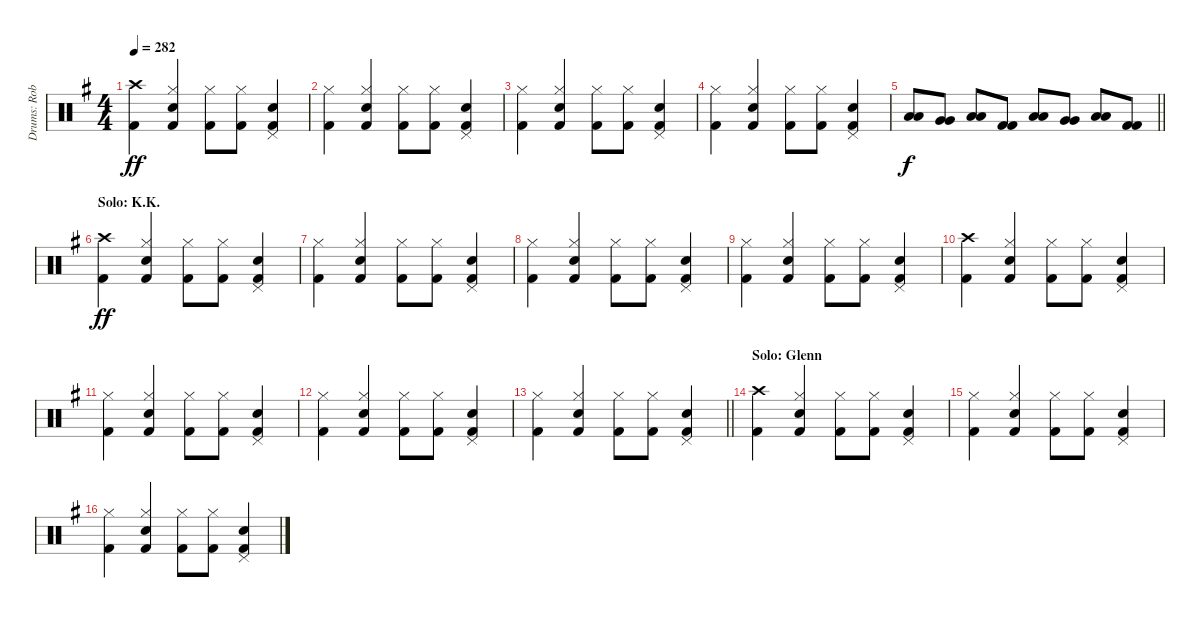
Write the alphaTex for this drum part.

\track ("Drums: Rob" "Drums: Rob") {instrument percussion}
\staff {score}
\articulation defaults
\ts (4 4)
\tempo 282
\clef neutral
\ks g
("Crash high (hit)" "Kick (hit) 2").4{dy ff} ("Hi-Hat (closed)" "Snare (hit) 2" "Kick (hit) 2").4 ("Hi-Hat (closed)" "Kick (hit) 2").8 ("Hi-Hat (closed)" "Kick (hit) 2").8 ("Pedal Hi-Hat (hit)" "Snare (hit) 2" "Kick (hit) 2").4 |
("Hi-Hat (closed)" "Kick (hit) 2").4 ("Hi-Hat (closed)" "Snare (hit) 2" "Kick (hit) 2").4 ("Hi-Hat (closed)" "Kick (hit) 2").8 ("Hi-Hat (closed)" "Kick (hit) 2").8 ("Pedal Hi-Hat (hit)" "Snare (hit) 2" "Kick (hit) 2").4 |
("Hi-Hat (closed)" "Kick (hit) 2").4 ("Hi-Hat (closed)" "Snare (hit) 2" "Kick (hit) 2").4 ("Hi-Hat (closed)" "Kick (hit) 2").8 ("Hi-Hat (closed)" "Kick (hit) 2").8 ("Pedal Hi-Hat (hit)" "Snare (hit) 2" "Kick (hit) 2").4 |
("Hi-Hat (closed)" "Kick (hit) 2").4 ("Hi-Hat (closed)" "Snare (hit) 2" "Kick (hit) 2").4 ("Hi-Hat (closed)" "Kick (hit) 2").8 ("Hi-Hat (closed)" "Kick (hit) 2").8 ("Pedal Hi-Hat (hit)" "Snare (hit) 2" "Kick (hit) 2").4 |
\barLineRight lightlight
("Low Tom (hit)" "Low Tom (hit)").8{dy f} ("Very Low Tom (hit)" "Very Low Tom (hit)").8 ("Low Floor Tom (hit)" "Low Floor Tom (hit)").8 ("Kick (hit) 2" "Kick (hit) 2").8 ("Low Tom (hit)" "Low Tom (hit)").8 ("Very Low Tom (hit)" "Very Low Tom (hit)").8 ("Low Floor Tom (hit)" "Low Floor Tom (hit)").8 ("Kick (hit) 2" "Kick (hit) 2").8 |
\section ("" "Solo: K.K.")
("Crash high (hit)" "Kick (hit) 2").4{dy ff} ("Hi-Hat (closed)" "Snare (hit) 2" "Kick (hit) 2").4 ("Hi-Hat (closed)" "Kick (hit) 2").8 ("Hi-Hat (closed)" "Kick (hit) 2").8 ("Pedal Hi-Hat (hit)" "Snare (hit) 2" "Kick (hit) 2").4 |
("Hi-Hat (closed)" "Kick (hit) 2").4 ("Hi-Hat (closed)" "Snare (hit) 2" "Kick (hit) 2").4 ("Hi-Hat (closed)" "Kick (hit) 2").8 ("Hi-Hat (closed)" "Kick (hit) 2").8 ("Pedal Hi-Hat (hit)" "Snare (hit) 2" "Kick (hit) 2").4 |
("Hi-Hat (closed)" "Kick (hit) 2").4 ("Hi-Hat (closed)" "Snare (hit) 2" "Kick (hit) 2").4 ("Hi-Hat (closed)" "Kick (hit) 2").8 ("Hi-Hat (closed)" "Kick (hit) 2").8 ("Pedal Hi-Hat (hit)" "Snare (hit) 2" "Kick (hit) 2").4 |
("Hi-Hat (closed)" "Kick (hit) 2").4 ("Hi-Hat (closed)" "Snare (hit) 2" "Kick (hit) 2").4 ("Hi-Hat (closed)" "Kick (hit) 2").8 ("Hi-Hat (closed)" "Kick (hit) 2").8 ("Pedal Hi-Hat (hit)" "Snare (hit) 2" "Kick (hit) 2").4 |
("Crash high (hit)" "Kick (hit) 2").4 ("Hi-Hat (closed)" "Snare (hit) 2" "Kick (hit) 2").4 ("Hi-Hat (closed)" "Kick (hit) 2").8 ("Hi-Hat (closed)" "Kick (hit) 2").8 ("Pedal Hi-Hat (hit)" "Snare (hit) 2" "Kick (hit) 2").4 |
("Hi-Hat (closed)" "Kick (hit) 2").4 ("Hi-Hat (closed)" "Snare (hit) 2" "Kick (hit) 2").4 ("Hi-Hat (closed)" "Kick (hit) 2").8 ("Hi-Hat (closed)" "Kick (hit) 2").8 ("Pedal Hi-Hat (hit)" "Snare (hit) 2" "Kick (hit) 2").4 |
("Hi-Hat (closed)" "Kick (hit) 2").4 ("Hi-Hat (closed)" "Snare (hit) 2" "Kick (hit) 2").4 ("Hi-Hat (closed)" "Kick (hit) 2").8 ("Hi-Hat (closed)" "Kick (hit) 2").8 ("Pedal Hi-Hat (hit)" "Snare (hit) 2" "Kick (hit) 2").4 |
\barLineRight lightlight
("Hi-Hat (closed)" "Kick (hit) 2").4 ("Hi-Hat (closed)" "Snare (hit) 2" "Kick (hit) 2").4 ("Hi-Hat (closed)" "Kick (hit) 2").8 ("Hi-Hat (closed)" "Kick (hit) 2").8 ("Pedal Hi-Hat (hit)" "Snare (hit) 2" "Kick (hit) 2").4 |
\section ("" "Solo: Glenn")
("Crash high (hit)" "Kick (hit) 2").4 ("Hi-Hat (closed)" "Snare (hit) 2" "Kick (hit) 2").4 ("Hi-Hat (closed)" "Kick (hit) 2").8 ("Hi-Hat (closed)" "Kick (hit) 2").8 ("Pedal Hi-Hat (hit)" "Snare (hit) 2" "Kick (hit) 2").4 |
("Hi-Hat (closed)" "Kick (hit) 2").4 ("Hi-Hat (closed)" "Snare (hit) 2" "Kick (hit) 2").4 ("Hi-Hat (closed)" "Kick (hit) 2").8 ("Hi-Hat (closed)" "Kick (hit) 2").8 ("Pedal Hi-Hat (hit)" "Snare (hit) 2" "Kick (hit) 2").4 |
("Hi-Hat (closed)" "Kick (hit) 2").4 ("Hi-Hat (closed)" "Snare (hit) 2" "Kick (hit) 2").4 ("Hi-Hat (closed)" "Kick (hit) 2").8 ("Hi-Hat (closed)" "Kick (hit) 2").8 ("Pedal Hi-Hat (hit)" "Snare (hit) 2" "Kick (hit) 2").4
